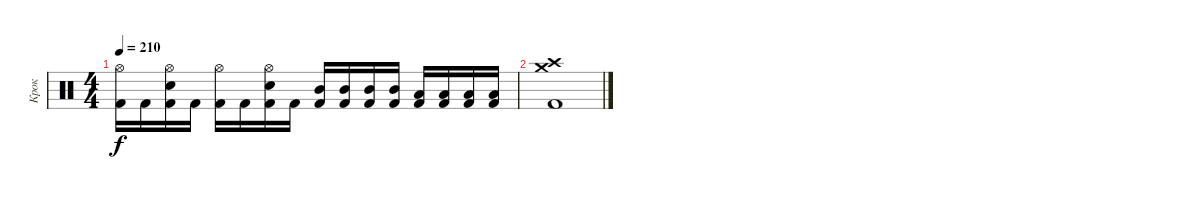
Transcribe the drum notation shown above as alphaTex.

\track ("Крок" "Крок") {instrument percussion}
\staff {score}
\articulation defaults
\ts (4 4)
\tempo 210
\clef neutral
\ks c
("Hi-Hat (open)" "Kick (hit) 2").16{dy f} "Kick (hit) 2".16 ("Hi-Hat (open)" "Electric Snare (hit)" "Kick (hit) 2").16 "Kick (hit) 2".16 ("Hi-Hat (open)" "Kick (hit) 2").16 "Kick (hit) 2".16 ("Hi-Hat (open)" "Electric Snare (hit)" "Kick (hit) 2").16 "Kick (hit) 2".16 ("Mid Tom (hit)" "Kick (hit) 2").16 ("Mid Tom (hit)" "Kick (hit) 2").16 ("Mid Tom (hit)" "Kick (hit) 2").16 ("Mid Tom (hit)" "Kick (hit) 2").16 ("Low Tom (hit)" "Kick (hit) 2").16 ("Low Tom (hit)" "Kick (hit) 2").16 ("Low Tom (hit)" "Kick (hit) 2").16 ("Low Tom (hit)" "Kick (hit) 2").16 |
("Crash high (hit)" "Crash medium (hit)" "Kick (hit) 2").1
